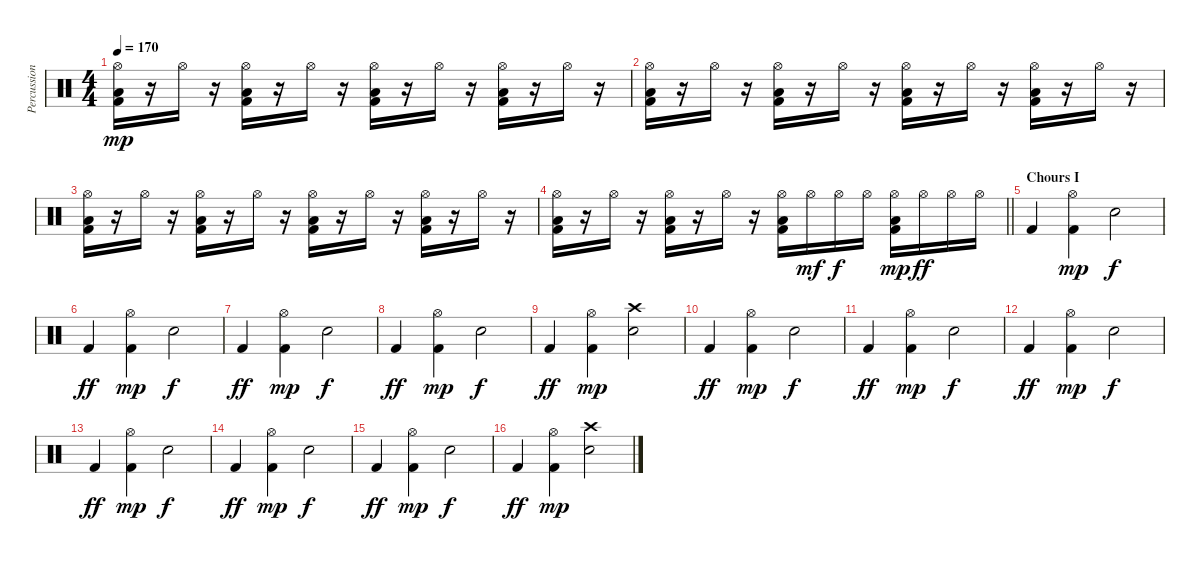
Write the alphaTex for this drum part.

\track ("Percussion" "Percussion") {instrument percussion}
\staff {score}
\articulation defaults
\ts (4 4)
\tempo 170
\clef neutral
\ks c
("Hi-Hat (open)" "Low Floor Tom (hit)" "Kick (hit) 2").16{dy mp} r.16 "Hi-Hat (open)".16 r.16 ("Hi-Hat (open)" "Low Floor Tom (hit)" "Kick (hit) 2").16 r.16 "Hi-Hat (open)".16 r.16 ("Hi-Hat (open)" "Low Floor Tom (hit)" "Kick (hit) 2").16 r.16 "Hi-Hat (open)".16 r.16 ("Hi-Hat (open)" "Low Floor Tom (hit)" "Kick (hit) 2").16 r.16 "Hi-Hat (open)".16 r.16 |
("Hi-Hat (open)" "Low Floor Tom (hit)" "Kick (hit) 2").16 r.16 "Hi-Hat (open)".16 r.16 ("Hi-Hat (open)" "Low Floor Tom (hit)" "Kick (hit) 2").16 r.16 "Hi-Hat (open)".16 r.16 ("Hi-Hat (open)" "Low Floor Tom (hit)" "Kick (hit) 2").16 r.16 "Hi-Hat (open)".16 r.16 ("Hi-Hat (open)" "Low Floor Tom (hit)" "Kick (hit) 2").16 r.16 "Hi-Hat (open)".16 r.16 |
("Hi-Hat (open)" "Low Floor Tom (hit)" "Kick (hit) 2").16 r.16 "Hi-Hat (open)".16 r.16 ("Hi-Hat (open)" "Low Floor Tom (hit)" "Kick (hit) 2").16 r.16 "Hi-Hat (open)".16 r.16 ("Hi-Hat (open)" "Low Floor Tom (hit)" "Kick (hit) 2").16 r.16 "Hi-Hat (open)".16 r.16 ("Hi-Hat (open)" "Low Floor Tom (hit)" "Kick (hit) 2").16 r.16 "Hi-Hat (open)".16 r.16 |
\barLineRight lightlight
("Hi-Hat (open)" "Low Floor Tom (hit)" "Kick (hit) 2").16 r.16 "Hi-Hat (open)".16 r.16 ("Hi-Hat (open)" "Low Floor Tom (hit)" "Kick (hit) 2").16 r.16 "Hi-Hat (open)".16 r.16 ("Hi-Hat (open)" "Low Floor Tom (hit)" "Kick (hit) 2").16 "Hi-Hat (open)".16{dy mf} "Hi-Hat (open)".16{dy f} "Hi-Hat (open)".16 ("Hi-Hat (open)" "Low Floor Tom (hit)" "Kick (hit) 2").16{dy mp} "Hi-Hat (open)".16{dy ff} "Hi-Hat (open)".16 "Hi-Hat (open)".16 |
\section ("" "Chours I")
"Kick (hit) 2".4 ("Hi-Hat (open)" "Kick (hit) 2").4{dy mp} "Electric Snare (hit)".2{dy f} |
"Kick (hit) 2".4{dy ff} ("Hi-Hat (open)" "Kick (hit) 2").4{dy mp} "Electric Snare (hit)".2{dy f} |
"Kick (hit) 2".4{dy ff} ("Hi-Hat (open)" "Kick (hit) 2").4{dy mp} "Electric Snare (hit)".2{dy f} |
"Kick (hit) 2".4{dy ff} ("Hi-Hat (open)" "Kick (hit) 2").4{dy mp} "Electric Snare (hit)".2{dy f} |
"Kick (hit) 2".4{dy ff} ("Hi-Hat (open)" "Kick (hit) 2").4{dy mp} ("Crash high (hit)" "Electric Snare (hit)").2 |
"Kick (hit) 2".4{dy ff} ("Hi-Hat (open)" "Kick (hit) 2").4{dy mp} "Electric Snare (hit)".2{dy f} |
"Kick (hit) 2".4{dy ff} ("Hi-Hat (open)" "Kick (hit) 2").4{dy mp} "Electric Snare (hit)".2{dy f} |
"Kick (hit) 2".4{dy ff} ("Hi-Hat (open)" "Kick (hit) 2").4{dy mp} "Electric Snare (hit)".2{dy f} |
"Kick (hit) 2".4{dy ff} ("Hi-Hat (open)" "Kick (hit) 2").4{dy mp} "Electric Snare (hit)".2{dy f} |
"Kick (hit) 2".4{dy ff} ("Hi-Hat (open)" "Kick (hit) 2").4{dy mp} "Electric Snare (hit)".2{dy f} |
"Kick (hit) 2".4{dy ff} ("Hi-Hat (open)" "Kick (hit) 2").4{dy mp} "Electric Snare (hit)".2{dy f} |
"Kick (hit) 2".4{dy ff} ("Hi-Hat (open)" "Kick (hit) 2").4{dy mp} ("Crash high (hit)" "Electric Snare (hit)").2
